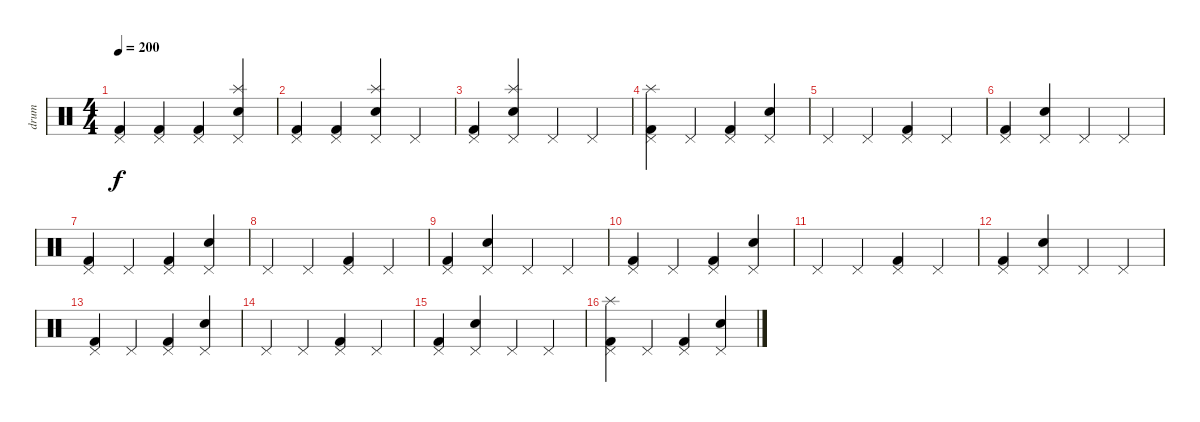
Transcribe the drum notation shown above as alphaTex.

\track ("drum" "drum") {instrument percussion}
\staff {score}
\articulation defaults
\ts (4 4)
\tempo 200
\clef neutral
\ks c
("Pedal Hi-Hat (hit)" "Kick (hit) 2").4{dy f} ("Pedal Hi-Hat (hit)" "Kick (hit) 2").4 ("Pedal Hi-Hat (hit)" "Kick (hit) 2").4 ("Pedal Hi-Hat (hit)" "Splash (hit)" "Electric Snare (hit)").4 |
("Pedal Hi-Hat (hit)" "Kick (hit) 2").4 ("Pedal Hi-Hat (hit)" "Kick (hit) 2").4 ("Pedal Hi-Hat (hit)" "Splash (hit)" "Electric Snare (hit)").4 "Pedal Hi-Hat (hit)".4 |
("Pedal Hi-Hat (hit)" "Kick (hit) 2").4 ("Pedal Hi-Hat (hit)" "Splash (hit)" "Electric Snare (hit)").4 "Pedal Hi-Hat (hit)".4 "Pedal Hi-Hat (hit)".4 |
("Pedal Hi-Hat (hit)" "Splash (hit)" "Kick (hit) 2").4 "Pedal Hi-Hat (hit)".4 ("Pedal Hi-Hat (hit)" "Kick (hit) 2").4 ("Pedal Hi-Hat (hit)" "Electric Snare (hit)").4 |
"Pedal Hi-Hat (hit)".4 "Pedal Hi-Hat (hit)".4 ("Pedal Hi-Hat (hit)" "Kick (hit) 2").4 "Pedal Hi-Hat (hit)".4 |
("Pedal Hi-Hat (hit)" "Kick (hit) 2").4 ("Pedal Hi-Hat (hit)" "Electric Snare (hit)").4 "Pedal Hi-Hat (hit)".4 "Pedal Hi-Hat (hit)".4 |
("Pedal Hi-Hat (hit)" "Kick (hit) 2").4 "Pedal Hi-Hat (hit)".4 ("Pedal Hi-Hat (hit)" "Kick (hit) 2").4 ("Pedal Hi-Hat (hit)" "Electric Snare (hit)").4 |
"Pedal Hi-Hat (hit)".4 "Pedal Hi-Hat (hit)".4 ("Pedal Hi-Hat (hit)" "Kick (hit) 2").4 "Pedal Hi-Hat (hit)".4 |
("Pedal Hi-Hat (hit)" "Kick (hit) 2").4 ("Pedal Hi-Hat (hit)" "Electric Snare (hit)").4 "Pedal Hi-Hat (hit)".4 "Pedal Hi-Hat (hit)".4 |
("Pedal Hi-Hat (hit)" "Kick (hit) 2").4 "Pedal Hi-Hat (hit)".4 ("Pedal Hi-Hat (hit)" "Kick (hit) 2").4 ("Pedal Hi-Hat (hit)" "Electric Snare (hit)").4 |
"Pedal Hi-Hat (hit)".4 "Pedal Hi-Hat (hit)".4 ("Pedal Hi-Hat (hit)" "Kick (hit) 2").4 "Pedal Hi-Hat (hit)".4 |
("Pedal Hi-Hat (hit)" "Kick (hit) 2").4 ("Pedal Hi-Hat (hit)" "Electric Snare (hit)").4 "Pedal Hi-Hat (hit)".4 "Pedal Hi-Hat (hit)".4 |
("Pedal Hi-Hat (hit)" "Kick (hit) 2").4 "Pedal Hi-Hat (hit)".4 ("Pedal Hi-Hat (hit)" "Kick (hit) 2").4 ("Pedal Hi-Hat (hit)" "Electric Snare (hit)").4 |
"Pedal Hi-Hat (hit)".4 "Pedal Hi-Hat (hit)".4 ("Pedal Hi-Hat (hit)" "Kick (hit) 2").4 "Pedal Hi-Hat (hit)".4 |
("Pedal Hi-Hat (hit)" "Kick (hit) 2").4 ("Pedal Hi-Hat (hit)" "Electric Snare (hit)").4 "Pedal Hi-Hat (hit)".4 "Pedal Hi-Hat (hit)".4 |
("Pedal Hi-Hat (hit)" "Splash (hit)" "Kick (hit) 2").4 "Pedal Hi-Hat (hit)".4 ("Pedal Hi-Hat (hit)" "Kick (hit) 2").4 ("Pedal Hi-Hat (hit)" "Electric Snare (hit)").4
